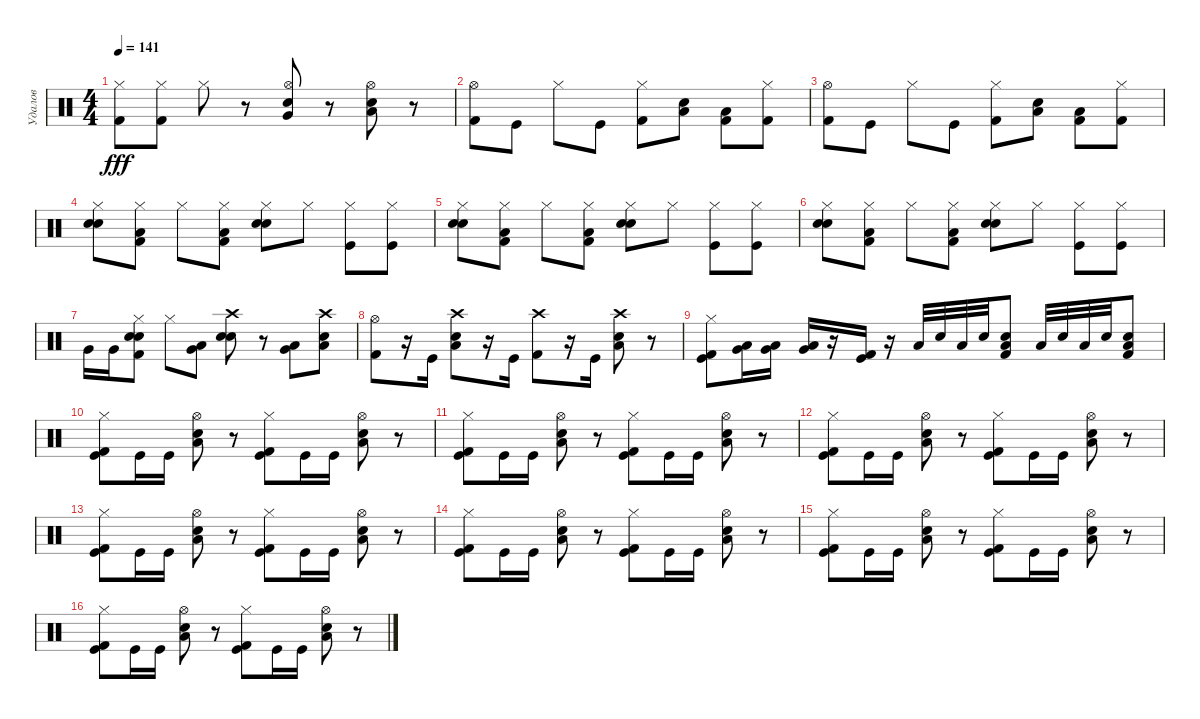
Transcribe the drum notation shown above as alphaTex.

\track ("Удалов" "Удалов") {instrument percussion}
\staff {score}
\articulation defaults
\ts (4 4)
\tempo 141
\clef neutral
\ks c
("Hi-Hat (closed)" "Kick (hit) 2").8{dy fff} ("Hi-Hat (closed)" "Kick (hit) 2").8 "Hi-Hat (closed)".8 r.8 ("Very Low Tom (hit)" "Hi-Hat (open)" "Snare (hit) 2").8 r.8 ("Low Tom (hit)" "Snare (hit) 2" "Hi-Hat (open)").8 r.8 |
("Hi-Hat (open)" "Kick (hit) 2").8 "Kick (hit)".8 "Hi-Hat (closed)".8 "Kick (hit)".8 ("Kick (hit) 2" "Hi-Hat (closed)").8 ("Snare (hit) 2" "Low Tom (hit)").8 ("Low Floor Tom (hit)" "Kick (hit) 2").8 ("Kick (hit) 2" "Hi-Hat (closed)").8 |
("Hi-Hat (open)" "Kick (hit) 2").8 "Kick (hit)".8 "Hi-Hat (closed)".8 "Kick (hit)".8 ("Kick (hit) 2" "Hi-Hat (closed)").8 ("Snare (hit) 2" "Low Tom (hit)").8 ("Low Floor Tom (hit)" "Kick (hit) 2").8 ("Kick (hit) 2" "Hi-Hat (closed)").8 |
("Electric Snare (hit)" "Snare (hit) 2" "Hi-Hat (closed)").8 ("Hi-Hat (closed)" "Low Floor Tom (hit)" "Kick (hit) 2").8 "Hi-Hat (closed)".8 ("Hi-Hat (closed)" "Low Floor Tom (hit)" "Kick (hit) 2").8 ("Hi-Hat (closed)" "Electric Snare (hit)" "Snare (hit) 2").8 "Hi-Hat (closed)".8 ("Hi-Hat (closed)" "Kick (hit)").8 ("Hi-Hat (closed)" "Kick (hit)").8 |
("Electric Snare (hit)" "Snare (hit) 2" "Hi-Hat (closed)").8 ("Hi-Hat (closed)" "Low Floor Tom (hit)" "Kick (hit) 2").8 "Hi-Hat (closed)".8 ("Hi-Hat (closed)" "Low Floor Tom (hit)" "Kick (hit) 2").8 ("Hi-Hat (closed)" "Electric Snare (hit)" "Snare (hit) 2").8 "Hi-Hat (closed)".8 ("Hi-Hat (closed)" "Kick (hit)").8 ("Hi-Hat (closed)" "Kick (hit)").8 |
("Electric Snare (hit)" "Snare (hit) 2" "Hi-Hat (closed)").8 ("Hi-Hat (closed)" "Low Floor Tom (hit)" "Kick (hit) 2").8 "Hi-Hat (closed)".8 ("Hi-Hat (closed)" "Low Floor Tom (hit)" "Kick (hit) 2").8 ("Hi-Hat (closed)" "Electric Snare (hit)" "Snare (hit) 2").8 "Hi-Hat (closed)".8 ("Hi-Hat (closed)" "Kick (hit)").8 ("Hi-Hat (closed)" "Kick (hit)").8 |
"Very Low Tom (hit)".16 "Very Low Tom (hit)".16 ("Hi-Hat (closed)" "Kick (hit) 2" "Electric Snare (hit)" "Snare (hit) 2").8 "Hi-Hat (closed)".8 ("Low Tom (hit)" "Very Low Tom (hit)").8 ("Crash high (hit)" "Snare (hit) 2" "Electric Snare (hit)").8 r.8 ("Very Low Tom (hit)" "Low Tom (hit)").8 ("Crash high (hit)" "Low Tom (hit)" "Snare (hit) 2").8 |
("Kick (hit) 2" "Hi-Hat (open)").8 r.16 "Kick (hit)".16 ("Low Tom (hit)" "Snare (hit) 2" "Crash high (hit)").8 r.16 "Kick (hit)".16 ("Kick (hit) 2" "Crash high (hit)").8 r.16 "Kick (hit)".16 ("Low Tom (hit)" "Snare (hit) 2" "Crash high (hit)").8 r.8 |
("Hi-Hat (closed)" "Kick (hit)" "Kick (hit) 2").8 ("Low Tom (hit)" "Very Low Tom (hit)").16 ("Very Low Tom (hit)" "Low Floor Tom (hit)").16 ("Very Low Tom (hit)" "Low Floor Tom (hit)").16 r.16 ("Kick (hit)" "Kick (hit) 2").16 r.16 "Low Tom (hit)".32 "Snare (hit) 2".32 "Low Tom (hit)".32 "Snare (hit) 2".32 ("Kick (hit) 2" "Low Tom (hit)" "Snare (hit) 2").8 "Low Tom (hit)".32 "Snare (hit) 2".32 "Low Tom (hit)".32 "Snare (hit) 2".32 ("Low Tom (hit)" "Kick (hit) 2" "Snare (hit) 2").8 |
("Hi-Hat (closed)" "Kick (hit)" "Kick (hit) 2").8 "Kick (hit)".16 "Kick (hit)".16 ("Hi-Hat (open)" "Low Tom (hit)" "Snare (hit) 2").8 r.8 ("Hi-Hat (closed)" "Kick (hit)" "Kick (hit) 2").8 "Kick (hit)".16 "Kick (hit)".16 ("Hi-Hat (open)" "Low Tom (hit)" "Snare (hit) 2").8 r.8 |
("Hi-Hat (closed)" "Kick (hit)" "Kick (hit) 2").8 "Kick (hit)".16 "Kick (hit)".16 ("Hi-Hat (open)" "Low Tom (hit)" "Snare (hit) 2").8 r.8 ("Hi-Hat (closed)" "Kick (hit)" "Kick (hit) 2").8 "Kick (hit)".16 "Kick (hit)".16 ("Hi-Hat (open)" "Low Tom (hit)" "Snare (hit) 2").8 r.8 |
("Hi-Hat (closed)" "Kick (hit)" "Kick (hit) 2").8 "Kick (hit)".16 "Kick (hit)".16 ("Hi-Hat (open)" "Low Tom (hit)" "Snare (hit) 2").8 r.8 ("Hi-Hat (closed)" "Kick (hit)" "Kick (hit) 2").8 "Kick (hit)".16 "Kick (hit)".16 ("Hi-Hat (open)" "Low Tom (hit)" "Snare (hit) 2").8 r.8 |
("Hi-Hat (closed)" "Kick (hit)" "Kick (hit) 2").8 "Kick (hit)".16 "Kick (hit)".16 ("Hi-Hat (open)" "Low Tom (hit)" "Snare (hit) 2").8 r.8 ("Hi-Hat (closed)" "Kick (hit)" "Kick (hit) 2").8 "Kick (hit)".16 "Kick (hit)".16 ("Hi-Hat (open)" "Low Tom (hit)" "Snare (hit) 2").8 r.8 |
("Hi-Hat (closed)" "Kick (hit)" "Kick (hit) 2").8 "Kick (hit)".16 "Kick (hit)".16 ("Hi-Hat (open)" "Low Tom (hit)" "Snare (hit) 2").8 r.8 ("Hi-Hat (closed)" "Kick (hit)" "Kick (hit) 2").8 "Kick (hit)".16 "Kick (hit)".16 ("Hi-Hat (open)" "Low Tom (hit)" "Snare (hit) 2").8 r.8 |
("Hi-Hat (closed)" "Kick (hit)" "Kick (hit) 2").8 "Kick (hit)".16 "Kick (hit)".16 ("Hi-Hat (open)" "Low Tom (hit)" "Snare (hit) 2").8 r.8 ("Hi-Hat (closed)" "Kick (hit)" "Kick (hit) 2").8 "Kick (hit)".16 "Kick (hit)".16 ("Hi-Hat (open)" "Low Tom (hit)" "Snare (hit) 2").8 r.8 |
("Hi-Hat (closed)" "Kick (hit)" "Kick (hit) 2").8 "Kick (hit)".16 "Kick (hit)".16 ("Hi-Hat (open)" "Low Tom (hit)" "Snare (hit) 2").8 r.8 ("Hi-Hat (closed)" "Kick (hit)" "Kick (hit) 2").8 "Kick (hit)".16 "Kick (hit)".16 ("Hi-Hat (open)" "Low Tom (hit)" "Snare (hit) 2").8 r.8
